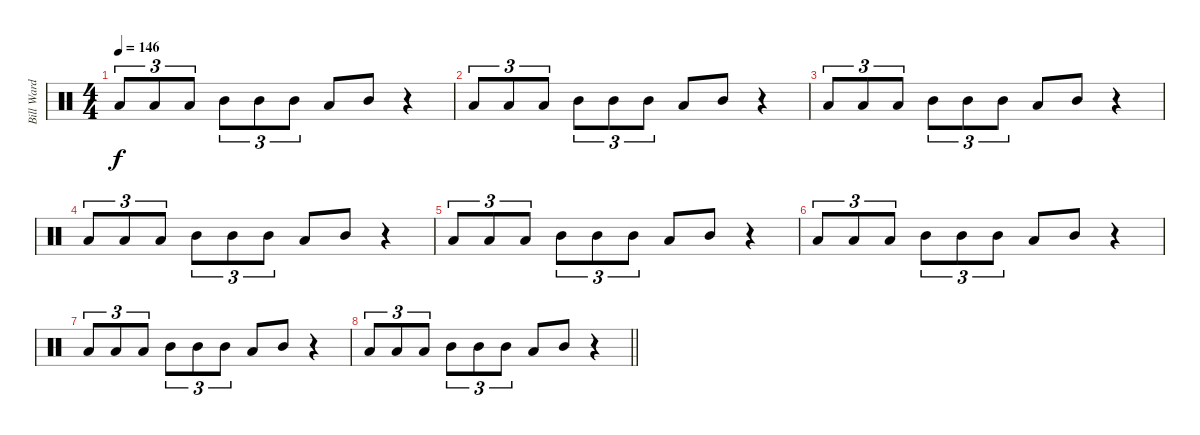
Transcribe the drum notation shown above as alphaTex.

\track ("Bill Ward - Drum Fills" "Bill Ward ") {instrument percussion}
\staff {score}
\articulation defaults
\ts (4 4)
\tempo 146
\clef neutral
\ks c "Low Tom (hit)".8{tu (3 2) dy f} "Low Tom (hit)".8{tu (3 2)} "Low Tom (hit)".8{tu (3 2)} "Mid Tom (hit)".8{tu (3 2)} "Mid Tom (hit)".8{tu (3 2)} "Mid Tom (hit)".8{tu (3 2)} "Low Floor Tom (hit)".8 "Mid Tom (hit)".8
r.4 |
"Low Tom (hit)".8{tu (3 2)} "Low Tom (hit)".8{tu (3 2)} "Low Tom (hit)".8{tu (3 2)} "Mid Tom (hit)".8{tu (3 2)} "Mid Tom (hit)".8{tu (3 2)} "Mid Tom (hit)".8{tu (3 2)} "Low Floor Tom (hit)".8 "Mid Tom (hit)".8 r.4 |
"Low Tom (hit)".8{tu (3 2)} "Low Tom (hit)".8{tu (3 2)} "Low Tom (hit)".8{tu (3 2)} "Mid Tom (hit)".8{tu (3 2)} "Mid Tom (hit)".8{tu (3 2)} "Mid Tom (hit)".8{tu (3 2)} "Low Floor Tom (hit)".8 "Mid Tom (hit)".8 r.4 |
"Low Tom (hit)".8{tu (3 2)} "Low Tom (hit)".8{tu (3 2)} "Low Tom (hit)".8{tu (3 2)} "Mid Tom (hit)".8{tu (3 2)} "Mid Tom (hit)".8{tu (3 2)} "Mid Tom (hit)".8{tu (3 2)} "Low Floor Tom (hit)".8 "Mid Tom (hit)".8 r.4 |
"Low Tom (hit)".8{tu (3 2)} "Low Tom (hit)".8{tu (3 2)} "Low Tom (hit)".8{tu (3 2)} "Mid Tom (hit)".8{tu (3 2)} "Mid Tom (hit)".8{tu (3 2)} "Mid Tom (hit)".8{tu (3 2)} "Low Floor Tom (hit)".8 "Mid Tom (hit)".8 r.4 |
"Low Tom (hit)".8{tu (3 2)} "Low Tom (hit)".8{tu (3 2)} "Low Tom (hit)".8{tu (3 2)} "Mid Tom (hit)".8{tu (3 2)} "Mid Tom (hit)".8{tu (3 2)} "Mid Tom (hit)".8{tu (3 2)} "Low Floor Tom (hit)".8 "Mid Tom (hit)".8 r.4 |
"Low Tom (hit)".8{tu (3 2)} "Low Tom (hit)".8{tu (3 2)} "Low Tom (hit)".8{tu (3 2)} "Mid Tom (hit)".8{tu (3 2)} "Mid Tom (hit)".8{tu (3 2)} "Mid Tom (hit)".8{tu (3 2)} "Low Floor Tom (hit)".8 "Mid Tom (hit)".8 r.4 |
\barLineRight lightlight "Low Tom (hit)".8{tu (3 2)} "Low Tom (hit)".8{tu (3 2)} "Low Tom (hit)".8{tu (3 2)} "Mid Tom (hit)".8{tu (3 2)} "Mid Tom (hit)".8{tu (3 2)} "Mid Tom (hit)".8{tu (3 2)} "Low Floor Tom (hit)".8 "Mid Tom (hit)".8
r.4
